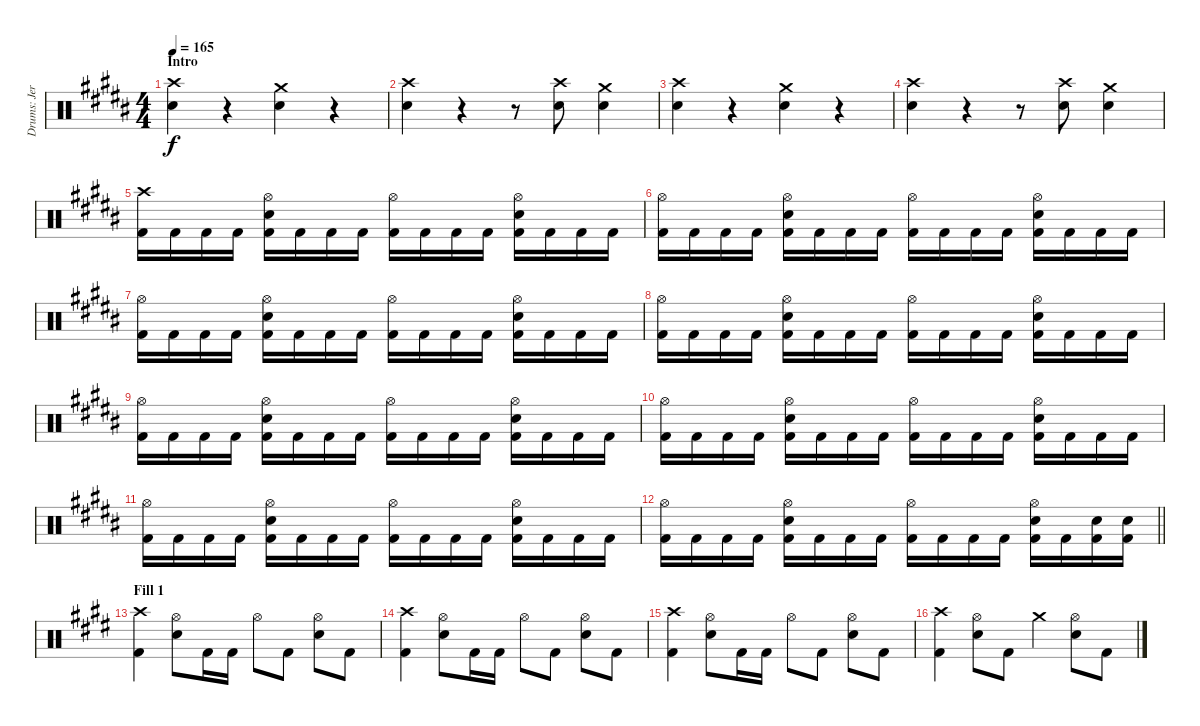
\track ("Drums: Jere Luokkamäki" "Drums: Jer") {instrument percussion}
\staff {score}
\articulation defaults
\ts (4 4)
\section ("" "Intro")
\tempo 165
\clef neutral
\ks g#minor
("Crash high (hit)" "Electric Snare (hit)").4{dy f} r.4 ("Crash medium (hit)" "Electric Snare (hit)").4 r.4 |
("Crash high (hit)" "Electric Snare (hit)").4 r.4 r.8 ("Crash high (hit)" "Electric Snare (hit)").8 ("Crash medium (hit)" "Electric Snare (hit)").4 |
("Crash high (hit)" "Electric Snare (hit)").4 r.4 ("Crash medium (hit)" "Electric Snare (hit)").4 r.4 |
("Crash high (hit)" "Electric Snare (hit)").4 r.4 r.8 ("Crash high (hit)" "Electric Snare (hit)").8 ("Crash medium (hit)" "Electric Snare (hit)").4 |
("Crash high (hit)" "Kick (hit) 2").16 "Kick (hit) 2".16 "Kick (hit) 2".16 "Kick (hit) 2".16 ("Hi-Hat (open)" "Electric Snare (hit)" "Kick (hit) 2").16 "Kick (hit) 2".16 "Kick (hit) 2".16 "Kick (hit) 2".16 ("Hi-Hat (open)" "Kick (hit) 2").16 "Kick (hit) 2".16 "Kick (hit) 2".16 "Kick (hit) 2".16 ("Hi-Hat (open)" "Electric Snare (hit)" "Kick (hit) 2").16 "Kick (hit) 2".16 "Kick (hit) 2".16 "Kick (hit) 2".16 |
("Hi-Hat (open)" "Kick (hit) 2").16 "Kick (hit) 2".16 "Kick (hit) 2".16 "Kick (hit) 2".16 ("Hi-Hat (open)" "Electric Snare (hit)" "Kick (hit) 2").16 "Kick (hit) 2".16 "Kick (hit) 2".16 "Kick (hit) 2".16 ("Hi-Hat (open)" "Kick (hit) 2").16 "Kick (hit) 2".16 "Kick (hit) 2".16 "Kick (hit) 2".16 ("Hi-Hat (open)" "Electric Snare (hit)" "Kick (hit) 2").16 "Kick (hit) 2".16 "Kick (hit) 2".16 "Kick (hit) 2".16 |
("Hi-Hat (open)" "Kick (hit) 2").16 "Kick (hit) 2".16 "Kick (hit) 2".16 "Kick (hit) 2".16 ("Hi-Hat (open)" "Electric Snare (hit)" "Kick (hit) 2").16 "Kick (hit) 2".16 "Kick (hit) 2".16 "Kick (hit) 2".16 ("Hi-Hat (open)" "Kick (hit) 2").16 "Kick (hit) 2".16 "Kick (hit) 2".16 "Kick (hit) 2".16 ("Hi-Hat (open)" "Electric Snare (hit)" "Kick (hit) 2").16 "Kick (hit) 2".16 "Kick (hit) 2".16 "Kick (hit) 2".16 |
("Hi-Hat (open)" "Kick (hit) 2").16 "Kick (hit) 2".16 "Kick (hit) 2".16 "Kick (hit) 2".16 ("Hi-Hat (open)" "Electric Snare (hit)" "Kick (hit) 2").16 "Kick (hit) 2".16 "Kick (hit) 2".16 "Kick (hit) 2".16 ("Hi-Hat (open)" "Kick (hit) 2").16 "Kick (hit) 2".16 "Kick (hit) 2".16 "Kick (hit) 2".16 ("Hi-Hat (open)" "Electric Snare (hit)" "Kick (hit) 2").16 "Kick (hit) 2".16 "Kick (hit) 2".16 "Kick (hit) 2".16 |
("Hi-Hat (open)" "Kick (hit) 2").16 "Kick (hit) 2".16 "Kick (hit) 2".16 "Kick (hit) 2".16 ("Hi-Hat (open)" "Electric Snare (hit)" "Kick (hit) 2").16 "Kick (hit) 2".16 "Kick (hit) 2".16 "Kick (hit) 2".16 ("Hi-Hat (open)" "Kick (hit) 2").16 "Kick (hit) 2".16 "Kick (hit) 2".16 "Kick (hit) 2".16 ("Hi-Hat (open)" "Electric Snare (hit)" "Kick (hit) 2").16 "Kick (hit) 2".16 "Kick (hit) 2".16 "Kick (hit) 2".16 |
("Hi-Hat (open)" "Kick (hit) 2").16 "Kick (hit) 2".16 "Kick (hit) 2".16 "Kick (hit) 2".16 ("Hi-Hat (open)" "Electric Snare (hit)" "Kick (hit) 2").16 "Kick (hit) 2".16 "Kick (hit) 2".16 "Kick (hit) 2".16 ("Hi-Hat (open)" "Kick (hit) 2").16 "Kick (hit) 2".16 "Kick (hit) 2".16 "Kick (hit) 2".16 ("Hi-Hat (open)" "Electric Snare (hit)" "Kick (hit) 2").16 "Kick (hit) 2".16 "Kick (hit) 2".16 "Kick (hit) 2".16 |
("Hi-Hat (open)" "Kick (hit) 2").16 "Kick (hit) 2".16 "Kick (hit) 2".16 "Kick (hit) 2".16 ("Hi-Hat (open)" "Electric Snare (hit)" "Kick (hit) 2").16 "Kick (hit) 2".16 "Kick (hit) 2".16 "Kick (hit) 2".16 ("Hi-Hat (open)" "Kick (hit) 2").16 "Kick (hit) 2".16 "Kick (hit) 2".16 "Kick (hit) 2".16 ("Hi-Hat (open)" "Electric Snare (hit)" "Kick (hit) 2").16 "Kick (hit) 2".16 "Kick (hit) 2".16 "Kick (hit) 2".16 |
\barLineRight lightlight
("Hi-Hat (open)" "Kick (hit) 2").16 "Kick (hit) 2".16 "Kick (hit) 2".16 "Kick (hit) 2".16 ("Hi-Hat (open)" "Electric Snare (hit)" "Kick (hit) 2").16 "Kick (hit) 2".16 "Kick (hit) 2".16 "Kick (hit) 2".16 ("Hi-Hat (open)" "Kick (hit) 2").16 "Kick (hit) 2".16 "Kick (hit) 2".16 "Kick (hit) 2".16 ("Hi-Hat (open)" "Electric Snare (hit)" "Kick (hit) 2").16 "Kick (hit) 2".16 ("Electric Snare (hit)" "Kick (hit) 2").16 ("Electric Snare (hit)" "Kick (hit) 2").16 |
\section ("" "Fill 1")
\ks c#minor
("Crash high (hit)" "Kick (hit) 2").4 ("Hi-Hat (open)" "Electric Snare (hit)").8 "Kick (hit) 2".16 "Kick (hit) 2".16 "Hi-Hat (open)".8 "Kick (hit) 2".8 ("Hi-Hat (open)" "Electric Snare (hit)").8 "Kick (hit) 2".8 |
("Crash high (hit)" "Kick (hit) 2").4 ("Hi-Hat (open)" "Electric Snare (hit)").8 "Kick (hit) 2".16 "Kick (hit) 2".16 "Hi-Hat (open)".8 "Kick (hit) 2".8 ("Hi-Hat (open)" "Electric Snare (hit)").8 "Kick (hit) 2".8 |
("Crash high (hit)" "Kick (hit) 2").4 ("Hi-Hat (open)" "Electric Snare (hit)").8 "Kick (hit) 2".16 "Kick (hit) 2".16 "Hi-Hat (open)".8 "Kick (hit) 2".8 ("Hi-Hat (open)" "Electric Snare (hit)").8 "Kick (hit) 2".8 |
("Crash high (hit)" "Kick (hit) 2").4 ("Hi-Hat (open)" "Electric Snare (hit)").8 "Kick (hit) 2".8 "Crash medium (hit)".4 ("Hi-Hat (open)" "Electric Snare (hit)").8 "Kick (hit) 2".8
